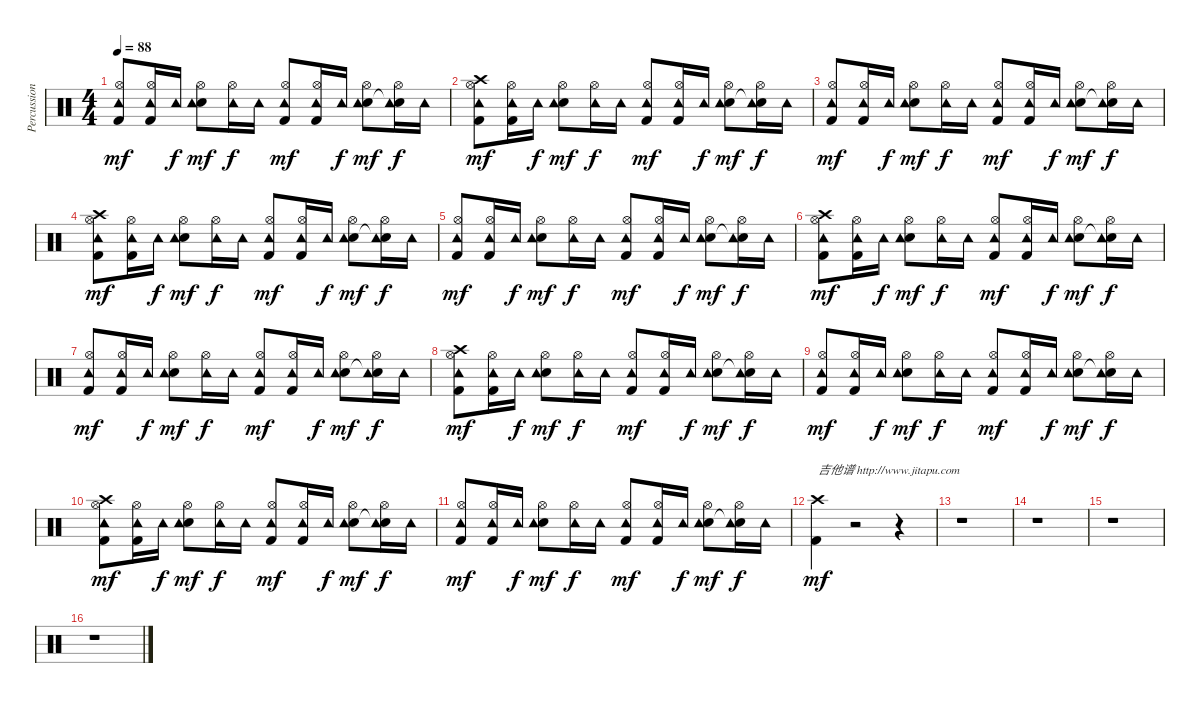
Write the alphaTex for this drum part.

\track ("Percussions" "Percussion") {instrument percussion}
\staff {score}
\articulation defaults
\ts (4 4)
\tempo 88
\clef neutral
\ks c
("Kick (hit) 2" "Hi-Hat (open)" "Tambourine (hit)").8{dy mf} ("Kick (hit) 2" "Hi-Hat (open)" "Tambourine (hit)").16 "Tambourine (hit)".16{dy f} ("Snare (hit) 2" "Hi-Hat (open)" "Tambourine (hit)").8{dy mf} ("Hi-Hat (open)" "Tambourine (hit)").16{dy f} "Tambourine (hit)".16 ("Kick (hit) 2" "Hi-Hat (open)" "Tambourine (hit)").8{dy mf} ("Kick (hit) 2" "Hi-Hat (open)" "Tambourine (hit)").16 "Tambourine (hit)".16{dy f} ("Snare (hit) 2" "Hi-Hat (open)" "Tambourine (hit)").8{dy mf} ("Snare (hit)"{t} "Hi-Hat (open)" "Tambourine (hit)").16{dy f} "Tambourine (hit)".16 |
("Kick (hit) 2" "Hi-Hat (open)" "Tambourine (hit)" "Crash high (hit)").8{dy mf} ("Kick (hit) 2" "Hi-Hat (open)" "Tambourine (hit)").16 "Tambourine (hit)".16{dy f} ("Snare (hit) 2" "Hi-Hat (open)" "Tambourine (hit)").8{dy mf} ("Hi-Hat (open)" "Tambourine (hit)").16{dy f} "Tambourine (hit)".16 ("Kick (hit) 2" "Hi-Hat (open)" "Tambourine (hit)").8{dy mf} ("Kick (hit) 2" "Hi-Hat (open)" "Tambourine (hit)").16 "Tambourine (hit)".16{dy f} ("Snare (hit) 2" "Hi-Hat (open)" "Tambourine (hit)").8{dy mf} ("Snare (hit)"{t} "Hi-Hat (open)" "Tambourine (hit)").16{dy f} "Tambourine (hit)".16 |
("Kick (hit) 2" "Hi-Hat (open)" "Tambourine (hit)").8{dy mf} ("Kick (hit) 2" "Hi-Hat (open)" "Tambourine (hit)").16 "Tambourine (hit)".16{dy f} ("Snare (hit) 2" "Hi-Hat (open)" "Tambourine (hit)").8{dy mf} ("Hi-Hat (open)" "Tambourine (hit)").16{dy f} "Tambourine (hit)".16 ("Kick (hit) 2" "Hi-Hat (open)" "Tambourine (hit)").8{dy mf} ("Kick (hit) 2" "Hi-Hat (open)" "Tambourine (hit)").16 "Tambourine (hit)".16{dy f} ("Snare (hit) 2" "Hi-Hat (open)" "Tambourine (hit)").8{dy mf} ("Snare (hit)"{t} "Hi-Hat (open)" "Tambourine (hit)").16{dy f} "Tambourine (hit)".16 |
("Kick (hit) 2" "Hi-Hat (open)" "Tambourine (hit)" "Crash high (hit)").8{dy mf} ("Kick (hit) 2" "Hi-Hat (open)" "Tambourine (hit)").16 "Tambourine (hit)".16{dy f} ("Snare (hit) 2" "Hi-Hat (open)" "Tambourine (hit)").8{dy mf} ("Hi-Hat (open)" "Tambourine (hit)").16{dy f} "Tambourine (hit)".16 ("Kick (hit) 2" "Hi-Hat (open)" "Tambourine (hit)").8{dy mf} ("Kick (hit) 2" "Hi-Hat (open)" "Tambourine (hit)").16 "Tambourine (hit)".16{dy f} ("Snare (hit) 2" "Hi-Hat (open)" "Tambourine (hit)").8{dy mf} ("Snare (hit)"{t} "Hi-Hat (open)" "Tambourine (hit)").16{dy f} "Tambourine (hit)".16 |
("Kick (hit) 2" "Hi-Hat (open)" "Tambourine (hit)").8{dy mf} ("Kick (hit) 2" "Hi-Hat (open)" "Tambourine (hit)").16 "Tambourine (hit)".16{dy f} ("Snare (hit) 2" "Hi-Hat (open)" "Tambourine (hit)").8{dy mf} ("Hi-Hat (open)" "Tambourine (hit)").16{dy f} "Tambourine (hit)".16 ("Kick (hit) 2" "Hi-Hat (open)" "Tambourine (hit)").8{dy mf} ("Kick (hit) 2" "Hi-Hat (open)" "Tambourine (hit)").16 "Tambourine (hit)".16{dy f} ("Snare (hit) 2" "Hi-Hat (open)" "Tambourine (hit)").8{dy mf} ("Snare (hit)"{t} "Hi-Hat (open)" "Tambourine (hit)").16{dy f} "Tambourine (hit)".16 |
("Kick (hit) 2" "Hi-Hat (open)" "Tambourine (hit)" "Crash high (hit)").8{dy mf} ("Kick (hit) 2" "Hi-Hat (open)" "Tambourine (hit)").16 "Tambourine (hit)".16{dy f} ("Snare (hit) 2" "Hi-Hat (open)" "Tambourine (hit)").8{dy mf} ("Hi-Hat (open)" "Tambourine (hit)").16{dy f} "Tambourine (hit)".16 ("Kick (hit) 2" "Hi-Hat (open)" "Tambourine (hit)").8{dy mf} ("Kick (hit) 2" "Hi-Hat (open)" "Tambourine (hit)").16 "Tambourine (hit)".16{dy f} ("Snare (hit) 2" "Hi-Hat (open)" "Tambourine (hit)").8{dy mf} ("Snare (hit)"{t} "Hi-Hat (open)" "Tambourine (hit)").16{dy f} "Tambourine (hit)".16 |
("Kick (hit) 2" "Hi-Hat (open)" "Tambourine (hit)").8{dy mf} ("Kick (hit) 2" "Hi-Hat (open)" "Tambourine (hit)").16 "Tambourine (hit)".16{dy f} ("Snare (hit) 2" "Hi-Hat (open)" "Tambourine (hit)").8{dy mf} ("Hi-Hat (open)" "Tambourine (hit)").16{dy f} "Tambourine (hit)".16 ("Kick (hit) 2" "Hi-Hat (open)" "Tambourine (hit)").8{dy mf} ("Kick (hit) 2" "Hi-Hat (open)" "Tambourine (hit)").16 "Tambourine (hit)".16{dy f} ("Snare (hit) 2" "Hi-Hat (open)" "Tambourine (hit)").8{dy mf} ("Snare (hit)"{t} "Hi-Hat (open)" "Tambourine (hit)").16{dy f} "Tambourine (hit)".16 |
("Kick (hit) 2" "Hi-Hat (open)" "Tambourine (hit)" "Crash high (hit)").8{dy mf} ("Kick (hit) 2" "Hi-Hat (open)" "Tambourine (hit)").16 "Tambourine (hit)".16{dy f} ("Snare (hit) 2" "Hi-Hat (open)" "Tambourine (hit)").8{dy mf} ("Hi-Hat (open)" "Tambourine (hit)").16{dy f} "Tambourine (hit)".16 ("Kick (hit) 2" "Hi-Hat (open)" "Tambourine (hit)").8{dy mf} ("Kick (hit) 2" "Hi-Hat (open)" "Tambourine (hit)").16 "Tambourine (hit)".16{dy f} ("Snare (hit) 2" "Hi-Hat (open)" "Tambourine (hit)").8{dy mf} ("Snare (hit)"{t} "Hi-Hat (open)" "Tambourine (hit)").16{dy f} "Tambourine (hit)".16 |
("Kick (hit) 2" "Hi-Hat (open)" "Tambourine (hit)").8{dy mf} ("Kick (hit) 2" "Hi-Hat (open)" "Tambourine (hit)").16 "Tambourine (hit)".16{dy f} ("Snare (hit) 2" "Hi-Hat (open)" "Tambourine (hit)").8{dy mf} ("Hi-Hat (open)" "Tambourine (hit)").16{dy f} "Tambourine (hit)".16 ("Kick (hit) 2" "Hi-Hat (open)" "Tambourine (hit)").8{dy mf} ("Kick (hit) 2" "Hi-Hat (open)" "Tambourine (hit)").16 "Tambourine (hit)".16{dy f} ("Snare (hit) 2" "Hi-Hat (open)" "Tambourine (hit)").8{dy mf} ("Snare (hit)"{t} "Hi-Hat (open)" "Tambourine (hit)").16{dy f} "Tambourine (hit)".16 |
("Kick (hit) 2" "Hi-Hat (open)" "Tambourine (hit)" "Crash high (hit)").8{dy mf} ("Kick (hit) 2" "Hi-Hat (open)" "Tambourine (hit)").16 "Tambourine (hit)".16{dy f} ("Snare (hit) 2" "Hi-Hat (open)" "Tambourine (hit)").8{dy mf} ("Hi-Hat (open)" "Tambourine (hit)").16{dy f} "Tambourine (hit)".16 ("Kick (hit) 2" "Hi-Hat (open)" "Tambourine (hit)").8{dy mf} ("Kick (hit) 2" "Hi-Hat (open)" "Tambourine (hit)").16 "Tambourine (hit)".16{dy f} ("Snare (hit) 2" "Hi-Hat (open)" "Tambourine (hit)").8{dy mf} ("Snare (hit)"{t} "Hi-Hat (open)" "Tambourine (hit)").16{dy f} "Tambourine (hit)".16 |
("Kick (hit) 2" "Hi-Hat (open)" "Tambourine (hit)").8{dy mf} ("Kick (hit) 2" "Hi-Hat (open)" "Tambourine (hit)").16 "Tambourine (hit)".16{dy f} ("Snare (hit) 2" "Hi-Hat (open)" "Tambourine (hit)").8{dy mf} ("Hi-Hat (open)" "Tambourine (hit)").16{dy f} "Tambourine (hit)".16 ("Kick (hit) 2" "Hi-Hat (open)" "Tambourine (hit)").8{dy mf} ("Kick (hit) 2" "Hi-Hat (open)" "Tambourine (hit)").16 "Tambourine (hit)".16{dy f} ("Snare (hit) 2" "Hi-Hat (open)" "Tambourine (hit)").8{dy mf} ("Snare (hit)"{t} "Hi-Hat (open)" "Tambourine (hit)").16{dy f} "Tambourine (hit)".16 |
("Kick (hit) 2" "Crash high (hit)").4{txt "吉他谱 http://www.jitapu.com" dy mf} r.2 r.4 |
r.1 |
r.1 |
r.1 |
r.1
